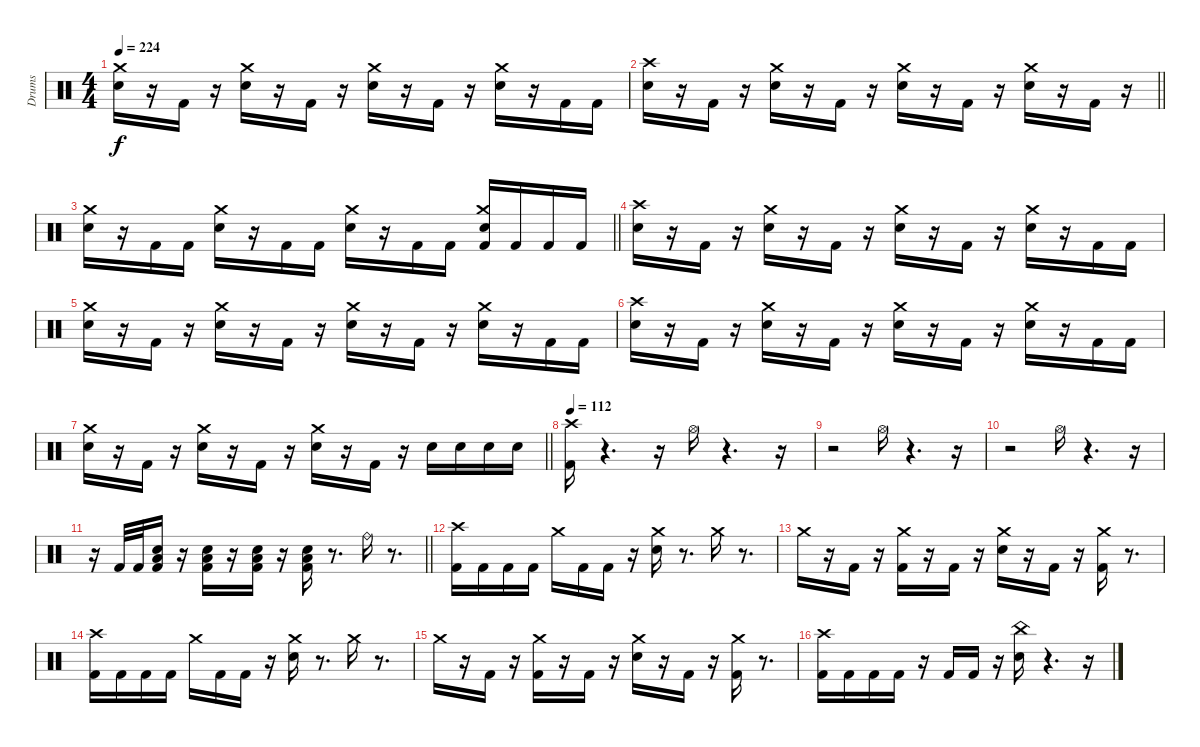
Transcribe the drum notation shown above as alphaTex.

\track ("Drums" "Drums") {instrument percussion}
\staff {score}
\articulation defaults
\ts (4 4)
\tempo 224
\clef neutral
\ks c
("Snare (hit) 2" "Crash medium (hit)").16{dy f} r.16 "Kick (hit) 2".16 r.16 ("Snare (hit) 2" "Crash medium (hit)").16 r.16 "Kick (hit) 2".16 r.16 ("Snare (hit) 2" "Crash medium (hit)").16 r.16 "Kick (hit) 2".16 r.16 ("Snare (hit) 2" "Crash medium (hit)").16 r.16 "Kick (hit) 2".16 "Kick (hit) 2".16 |
\barLineRight lightlight
("Snare (hit) 2" "Crash high (hit)").16 r.16 "Kick (hit) 2".16 r.16 ("Snare (hit) 2" "Crash medium (hit)").16 r.16 "Kick (hit) 2".16 r.16 ("Snare (hit) 2" "Crash medium (hit)").16 r.16 "Kick (hit) 2".16 r.16 ("Snare (hit) 2" "Crash medium (hit)").16 r.16 "Kick (hit) 2".16 r.16 |
\barLineRight lightlight
("Snare (hit) 2" "Crash medium (hit)").16 r.16 "Kick (hit) 2".16 "Kick (hit) 2".16 ("Snare (hit) 2" "Crash medium (hit)").16 r.16 "Kick (hit) 2".16 "Kick (hit) 2".16 ("Snare (hit) 2" "Crash medium (hit)").16 r.16 "Kick (hit) 2".16 "Kick (hit) 2".16 ("Kick (hit) 2" "Snare (hit) 2" "Crash medium (hit)").16 "Kick (hit) 2".16 "Kick (hit) 2".16 "Kick (hit) 2".16 |
("Snare (hit) 2" "Crash high (hit)").16 r.16 "Kick (hit) 2".16 r.16 ("Snare (hit) 2" "Crash medium (hit)").16 r.16 "Kick (hit) 2".16 r.16 ("Snare (hit) 2" "Crash medium (hit)").16 r.16 "Kick (hit) 2".16 r.16 ("Snare (hit) 2" "Crash medium (hit)").16 r.16 "Kick (hit) 2".16 "Kick (hit) 2".16 |
("Snare (hit) 2" "Crash medium (hit)").16 r.16 "Kick (hit) 2".16 r.16 ("Snare (hit) 2" "Crash medium (hit)").16 r.16 "Kick (hit) 2".16 r.16 ("Snare (hit) 2" "Crash medium (hit)").16 r.16 "Kick (hit) 2".16 r.16 ("Snare (hit) 2" "Crash medium (hit)").16 r.16 "Kick (hit) 2".16 "Kick (hit) 2".16 |
("Snare (hit) 2" "Crash high (hit)").16 r.16 "Kick (hit) 2".16 r.16 ("Snare (hit) 2" "Crash medium (hit)").16 r.16 "Kick (hit) 2".16 r.16 ("Snare (hit) 2" "Crash medium (hit)").16 r.16 "Kick (hit) 2".16 r.16 ("Snare (hit) 2" "Crash medium (hit)").16 r.16 "Kick (hit) 2".16 "Kick (hit) 2".16 |
\barLineRight lightlight
("Snare (hit) 2" "Crash medium (hit)").16 r.16 "Kick (hit) 2".16 r.16 ("Snare (hit) 2" "Crash medium (hit)").16 r.16 "Kick (hit) 2".16 r.16 ("Snare (hit) 2" "Crash medium (hit)").16 r.16 "Kick (hit) 2".16 r.16 "Snare (hit) 2".16 "Snare (hit) 2".16 "Snare (hit) 2".16 "Snare (hit) 2".16 |
\section ("" " ")
\tempo 112
("Kick (hit) 2" "Crash high (hit)").16 r.4{d} r.16 "Hi-Hat (open)".16 r.4{d} r.16 |
r.2 "Hi-Hat (open)".16 r.4{d} r.16 |
r.2 "Hi-Hat (open)".16 r.4{d} r.16 |
\barLineRight lightlight
r.16 "Kick (hit) 2".32 "Kick (hit) 2".32 ("Kick (hit) 2" "Snare (hit) 2" "Low Floor Tom (hit)").16 r.16 ("Kick (hit) 2" "Snare (hit) 2" "Low Floor Tom (hit)").16 r.16 ("Kick (hit) 2" "Snare (hit) 2" "Low Floor Tom (hit)").16 r.16 ("Kick (hit) 2" "Snare (hit) 2" "Low Floor Tom (hit)").16 r.8{d} "Ride (bell)".16 r.8{d} |
\section ("" " ")
("Kick (hit) 2" "Crash high (hit)").16 "Kick (hit) 2".16 "Kick (hit) 2".16 "Kick (hit) 2".16 "Crash medium (hit)".16 "Kick (hit) 2".16 "Kick (hit) 2".16 r.16 ("Snare (hit) 2" "Crash medium (hit)").16 r.8{d} "Crash medium (hit)".16 r.8{d} |
"Crash medium (hit)".16 r.16 "Kick (hit) 2".16 r.16 ("Kick (hit) 2" "Crash medium (hit)").16 r.16 "Kick (hit) 2".16 r.16 ("Snare (hit) 2" "Crash medium (hit)").16 r.16 "Kick (hit) 2".16 r.16 ("Kick (hit) 2" "Crash medium (hit)").16 r.8{d} |
("Kick (hit) 2" "Crash high (hit)").16 "Kick (hit) 2".16 "Kick (hit) 2".16 "Kick (hit) 2".16 "Crash medium (hit)".16 "Kick (hit) 2".16 "Kick (hit) 2".16 r.16 ("Snare (hit) 2" "Crash medium (hit)").16 r.8{d} "Crash medium (hit)".16 r.8{d} |
"Crash medium (hit)".16 r.16 "Kick (hit) 2".16 r.16 ("Kick (hit) 2" "Crash medium (hit)").16 r.16 "Kick (hit) 2".16 r.16 ("Snare (hit) 2" "Crash medium (hit)").16 r.16 "Kick (hit) 2".16 r.16 ("Kick (hit) 2" "Crash medium (hit)").16 r.8{d} |
("Kick (hit) 2" "Crash high (hit)").16 "Kick (hit) 2".16 "Kick (hit) 2".16 "Kick (hit) 2".16 r.16 "Kick (hit) 2".16 "Kick (hit) 2".16 r.16 ("Snare (hit) 2" "China (hit)").16 r.4{d} r.16
